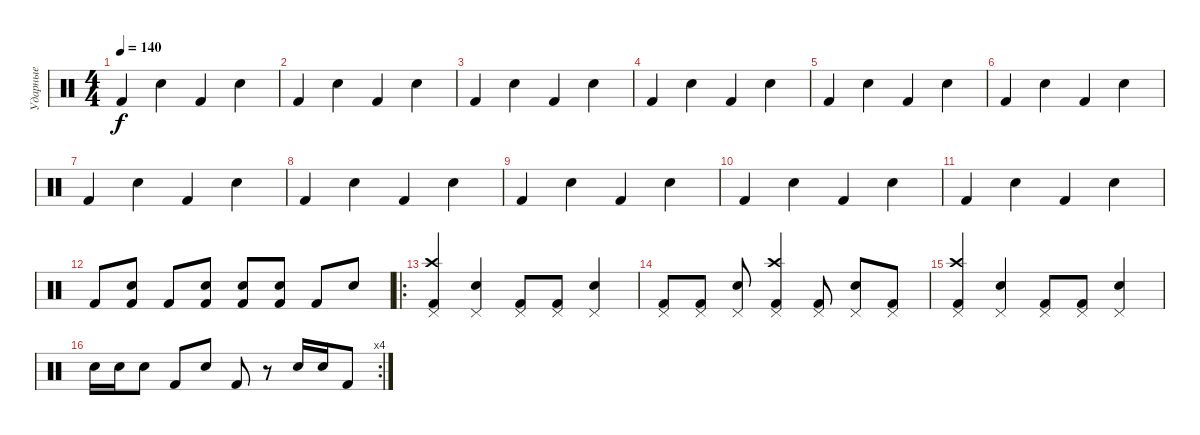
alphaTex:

\track ("Ударные" "Ударные") {instrument percussion}
\staff {score}
\articulation defaults
\ts (4 4)
\tempo 140
\clef neutral
\ks c "Kick (hit) 2".4{dy f} "Electric Snare (hit)".4 "Kick (hit) 2".4 "Electric Snare (hit)".4
|
"Kick (hit) 2".4 "Electric Snare (hit)".4 "Kick (hit) 2".4 "Electric Snare (hit)".4 |
"Kick (hit) 2".4 "Electric Snare (hit)".4 "Kick (hit) 2".4 "Electric Snare (hit)".4 |
"Kick (hit) 2".4 "Electric Snare (hit)".4 "Kick (hit) 2".4 "Electric Snare (hit)".4 |
"Kick (hit) 2".4 "Electric Snare (hit)".4 "Kick (hit) 2".4 "Electric Snare (hit)".4 |
"Kick (hit) 2".4 "Electric Snare (hit)".4 "Kick (hit) 2".4 "Electric Snare (hit)".4 |
"Kick (hit) 2".4 "Electric Snare (hit)".4 "Kick (hit) 2".4 "Electric Snare (hit)".4 |
"Kick (hit) 2".4 "Electric Snare (hit)".4 "Kick (hit) 2".4 "Electric Snare (hit)".4 |
"Kick (hit) 2".4 "Electric Snare (hit)".4 "Kick (hit) 2".4 "Electric Snare (hit)".4 |
"Kick (hit) 2".4 "Electric Snare (hit)".4 "Kick (hit) 2".4 "Electric Snare (hit)".4 |
"Kick (hit) 2".4 "Electric Snare (hit)".4 "Kick (hit) 2".4 "Electric Snare (hit)".4 |
"Kick (hit) 2".8 ("Electric Snare (hit)" "Kick (hit) 2").8 "Kick (hit) 2".8 ("Electric Snare (hit)" "Kick (hit) 2").8 ("Electric Snare (hit)" "Kick (hit) 2").8 ("Electric Snare (hit)" "Kick (hit) 2").8 "Kick (hit) 2".8 "Electric Snare (hit)".8 |
\ro
("Crash high (hit)" "Pedal Hi-Hat (hit)" "Kick (hit) 2").4 ("Pedal Hi-Hat (hit)" "Electric Snare (hit)").4 ("Pedal Hi-Hat (hit)" "Kick (hit) 2").8 ("Pedal Hi-Hat (hit)" "Kick (hit) 2").8 ("Pedal Hi-Hat (hit)" "Electric Snare (hit)").4 |
("Pedal Hi-Hat (hit)" "Kick (hit) 2").8 ("Pedal Hi-Hat (hit)" "Kick (hit) 2").8 ("Pedal Hi-Hat (hit)" "Electric Snare (hit)").8 ("Crash high (hit)" "Pedal Hi-Hat (hit)" "Kick (hit) 2").4 ("Pedal Hi-Hat (hit)" "Kick (hit) 2").8 ("Pedal Hi-Hat (hit)" "Electric Snare (hit)").8 ("Pedal Hi-Hat (hit)" "Kick (hit) 2").8 |
("Crash high (hit)" "Pedal Hi-Hat (hit)" "Kick (hit) 2").4 ("Pedal Hi-Hat (hit)" "Electric Snare (hit)").4 ("Pedal Hi-Hat (hit)" "Kick (hit) 2").8 ("Pedal Hi-Hat (hit)" "Kick (hit) 2").8 ("Pedal Hi-Hat (hit)" "Electric Snare (hit)").4 |
\rc 4 "Electric Snare (hit)".16 "Electric Snare (hit)".16 "Electric Snare (hit)".8 "Kick (hit) 2".8 "Electric Snare (hit)".8 "Kick (hit) 2".8
r.8 "Electric Snare (hit)".16 "Electric Snare (hit)".16 "Kick (hit) 2".8
